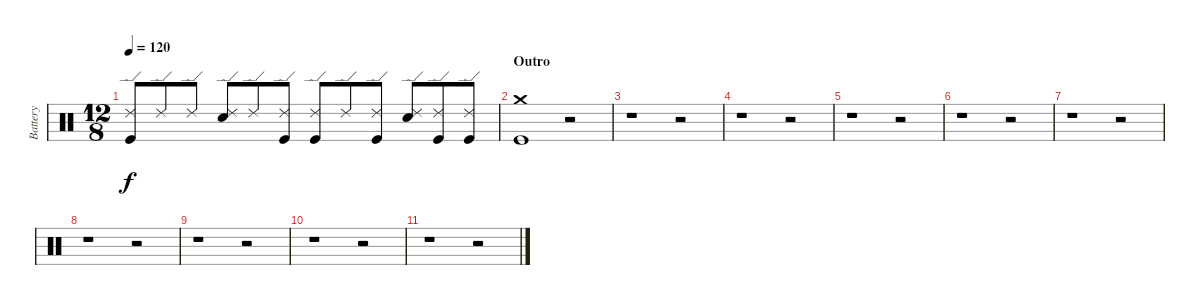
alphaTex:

\track ("Battery" "Battery") {instrument percussion}
\staff {score}
\articulation defaults
\ts (12 8)
\tempo 120
\clef neutral
\ks c
("Ride (edge) 2" "Kick (hit)").8{dy f} "Ride (edge) 2".8 "Ride (edge) 2".8 ("Ride (edge) 2" "Electric Snare (hit)").8 "Ride (edge) 2".8 ("Ride (edge) 2" "Kick (hit)").8 ("Ride (edge) 2" "Kick (hit)").8 "Ride (edge) 2".8 ("Ride (edge) 2" "Kick (hit)").8 ("Ride (edge) 2" "Electric Snare (hit)").8 ("Ride (edge) 2" "Kick (hit)").8 ("Ride (edge) 2" "Kick (hit)").8 |
\section ("" "Outro")
("Crash medium (hit)" "Kick (hit)").1 r.2 |
r.1 r.2 |
r.1 r.2 |
r.1 r.2 |
r.1 r.2 |
r.1 r.2 |
r.1 r.2 |
r.1 r.2 |
r.1 r.2 |
r.1 r.2
